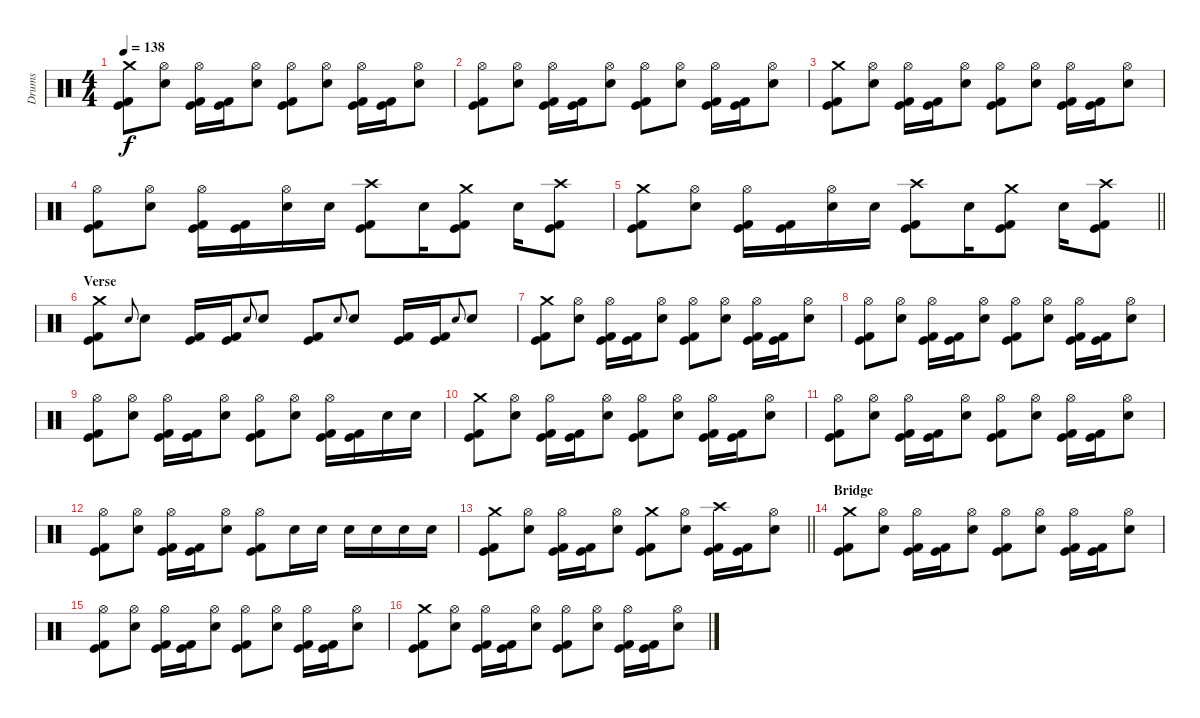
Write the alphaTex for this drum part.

\track ("Drums" "Drums") {instrument percussion}
\staff {score}
\articulation defaults
\ts (4 4)
\tempo 138
\clef neutral
\ks c
("Crash medium (hit)" "Kick (hit)" "Kick (hit) 2").8{dy f} ("Hi-Hat (open)" "Electric Snare (hit)").8 ("Hi-Hat (open)" "Kick (hit)" "Kick (hit) 2").16 ("Kick (hit)" "Kick (hit) 2").16 ("Hi-Hat (open)" "Electric Snare (hit)").8 ("Hi-Hat (open)" "Kick (hit)" "Kick (hit) 2").8 ("Hi-Hat (open)" "Electric Snare (hit)").8 ("Hi-Hat (open)" "Kick (hit)" "Kick (hit) 2").16 ("Kick (hit)" "Kick (hit) 2").16 ("Hi-Hat (open)" "Electric Snare (hit)").8 |
("Hi-Hat (open)" "Kick (hit)" "Kick (hit) 2").8 ("Hi-Hat (open)" "Electric Snare (hit)").8 ("Hi-Hat (open)" "Kick (hit)" "Kick (hit) 2").16 ("Kick (hit)" "Kick (hit) 2").16 ("Hi-Hat (open)" "Electric Snare (hit)").8 ("Hi-Hat (open)" "Kick (hit)" "Kick (hit) 2").8 ("Hi-Hat (open)" "Electric Snare (hit)").8 ("Hi-Hat (open)" "Kick (hit)" "Kick (hit) 2").16 ("Kick (hit)" "Kick (hit) 2").16 ("Hi-Hat (open)" "Electric Snare (hit)").8 |
("Crash medium (hit)" "Kick (hit)" "Kick (hit) 2").8 ("Hi-Hat (open)" "Electric Snare (hit)").8 ("Hi-Hat (open)" "Kick (hit)" "Kick (hit) 2").16 ("Kick (hit)" "Kick (hit) 2").16 ("Hi-Hat (open)" "Electric Snare (hit)").8 ("Hi-Hat (open)" "Kick (hit)" "Kick (hit) 2").8 ("Hi-Hat (open)" "Electric Snare (hit)").8 ("Hi-Hat (open)" "Kick (hit)" "Kick (hit) 2").16 ("Kick (hit)" "Kick (hit) 2").16 ("Hi-Hat (open)" "Electric Snare (hit)").8 |
("Hi-Hat (open)" "Kick (hit)" "Kick (hit) 2").8 ("Hi-Hat (open)" "Electric Snare (hit)").8 ("Hi-Hat (open)" "Kick (hit)" "Kick (hit) 2").16 ("Kick (hit)" "Kick (hit) 2").16 ("Hi-Hat (open)" "Electric Snare (hit)").16 "Electric Snare (hit)".16 ("Crash high (hit)" "Kick (hit)" "Kick (hit) 2").8 "Electric Snare (hit)".16 ("Crash medium (hit)" "Kick (hit)" "Kick (hit) 2").8 "Electric Snare (hit)".16 ("Crash high (hit)" "Kick (hit)" "Kick (hit) 2").8 |
\barLineRight lightlight
("Crash medium (hit)" "Kick (hit)" "Kick (hit) 2").8 ("Hi-Hat (open)" "Electric Snare (hit)").8 ("Hi-Hat (open)" "Kick (hit)" "Kick (hit) 2").16 ("Kick (hit)" "Kick (hit) 2").16 ("Hi-Hat (open)" "Electric Snare (hit)").16 "Electric Snare (hit)".16 ("Crash high (hit)" "Kick (hit)" "Kick (hit) 2").8 "Electric Snare (hit)".16 ("Crash medium (hit)" "Kick (hit)" "Kick (hit) 2").8 "Electric Snare (hit)".16 ("Crash high (hit)" "Kick (hit)" "Kick (hit) 2").8 |
\section ("" "Verse")
("Crash medium (hit)" "Kick (hit)" "Kick (hit) 2").8 "Electric Snare (hit)".8{gr onbeat} "Electric Snare (hit)".8 ("Kick (hit)" "Kick (hit) 2").16 ("Kick (hit)" "Kick (hit) 2").16 "Electric Snare (hit)".8{gr onbeat} "Electric Snare (hit)".8 ("Kick (hit)" "Kick (hit) 2").8 "Electric Snare (hit)".8{gr onbeat} "Electric Snare (hit)".8 ("Kick (hit)" "Kick (hit) 2").16 ("Kick (hit)" "Kick (hit) 2").16 "Electric Snare (hit)".8{gr onbeat} "Electric Snare (hit)".8 |
("Crash medium (hit)" "Kick (hit)" "Kick (hit) 2").8 ("Hi-Hat (open)" "Electric Snare (hit)").8 ("Hi-Hat (open)" "Kick (hit)" "Kick (hit) 2").16 ("Kick (hit)" "Kick (hit) 2").16 ("Hi-Hat (open)" "Electric Snare (hit)").8 ("Hi-Hat (open)" "Kick (hit)" "Kick (hit) 2").8 ("Hi-Hat (open)" "Electric Snare (hit)").8 ("Hi-Hat (open)" "Kick (hit)" "Kick (hit) 2").16 ("Kick (hit)" "Kick (hit) 2").16 ("Hi-Hat (open)" "Electric Snare (hit)").8 |
("Hi-Hat (open)" "Kick (hit)" "Kick (hit) 2").8 ("Hi-Hat (open)" "Electric Snare (hit)").8 ("Hi-Hat (open)" "Kick (hit)" "Kick (hit) 2").16 ("Kick (hit)" "Kick (hit) 2").16 ("Hi-Hat (open)" "Electric Snare (hit)").8 ("Hi-Hat (open)" "Kick (hit)" "Kick (hit) 2").8 ("Hi-Hat (open)" "Electric Snare (hit)").8 ("Hi-Hat (open)" "Kick (hit)" "Kick (hit) 2").16 ("Kick (hit)" "Kick (hit) 2").16 ("Hi-Hat (open)" "Electric Snare (hit)").8 |
("Hi-Hat (open)" "Kick (hit)" "Kick (hit) 2").8 ("Hi-Hat (open)" "Electric Snare (hit)").8 ("Hi-Hat (open)" "Kick (hit)" "Kick (hit) 2").16 ("Kick (hit)" "Kick (hit) 2").16 ("Hi-Hat (open)" "Electric Snare (hit)").8 ("Hi-Hat (open)" "Kick (hit)" "Kick (hit) 2").8 ("Hi-Hat (open)" "Electric Snare (hit)").8 ("Hi-Hat (open)" "Kick (hit)" "Kick (hit) 2").16 ("Kick (hit)" "Kick (hit) 2").16 "Electric Snare (hit)".16 "Electric Snare (hit)".16 |
("Crash medium (hit)" "Kick (hit)" "Kick (hit) 2").8 ("Hi-Hat (open)" "Electric Snare (hit)").8 ("Hi-Hat (open)" "Kick (hit)" "Kick (hit) 2").16 ("Kick (hit)" "Kick (hit) 2").16 ("Hi-Hat (open)" "Electric Snare (hit)").8 ("Hi-Hat (open)" "Kick (hit)" "Kick (hit) 2").8 ("Hi-Hat (open)" "Electric Snare (hit)").8 ("Hi-Hat (open)" "Kick (hit)" "Kick (hit) 2").16 ("Kick (hit)" "Kick (hit) 2").16 ("Hi-Hat (open)" "Electric Snare (hit)").8 |
("Hi-Hat (open)" "Kick (hit)" "Kick (hit) 2").8 ("Hi-Hat (open)" "Electric Snare (hit)").8 ("Hi-Hat (open)" "Kick (hit)" "Kick (hit) 2").16 ("Kick (hit)" "Kick (hit) 2").16 ("Hi-Hat (open)" "Electric Snare (hit)").8 ("Hi-Hat (open)" "Kick (hit)" "Kick (hit) 2").8 ("Hi-Hat (open)" "Electric Snare (hit)").8 ("Hi-Hat (open)" "Kick (hit)" "Kick (hit) 2").16 ("Kick (hit)" "Kick (hit) 2").16 ("Hi-Hat (open)" "Electric Snare (hit)").8 |
("Hi-Hat (open)" "Kick (hit)" "Kick (hit) 2").8 ("Hi-Hat (open)" "Electric Snare (hit)").8 ("Hi-Hat (open)" "Kick (hit)" "Kick (hit) 2").16 ("Kick (hit)" "Kick (hit) 2").16 ("Hi-Hat (open)" "Electric Snare (hit)").8 ("Hi-Hat (open)" "Kick (hit)" "Kick (hit) 2").8 "Electric Snare (hit)".16 "Electric Snare (hit)".16 "Electric Snare (hit)".16 "Electric Snare (hit)".16 "Electric Snare (hit)".16 "Electric Snare (hit)".16 |
\barLineRight lightlight
("Crash medium (hit)" "Kick (hit)" "Kick (hit) 2").8 ("Hi-Hat (open)" "Electric Snare (hit)").8 ("Hi-Hat (open)" "Kick (hit)" "Kick (hit) 2").16 ("Kick (hit)" "Kick (hit) 2").16 ("Hi-Hat (open)" "Electric Snare (hit)").8 ("Crash medium (hit)" "Kick (hit)" "Kick (hit) 2").8 ("Hi-Hat (open)" "Electric Snare (hit)").8 ("Crash high (hit)" "Kick (hit)" "Kick (hit) 2").16 ("Kick (hit)" "Kick (hit) 2").16 ("Hi-Hat (open)" "Electric Snare (hit)").8 |
\section ("" "Bridge")
("Crash medium (hit)" "Kick (hit)" "Kick (hit) 2").8 ("Hi-Hat (open)" "Electric Snare (hit)").8 ("Hi-Hat (open)" "Kick (hit)" "Kick (hit) 2").16 ("Kick (hit)" "Kick (hit) 2").16 ("Hi-Hat (open)" "Electric Snare (hit)").8 ("Hi-Hat (open)" "Kick (hit)" "Kick (hit) 2").8 ("Hi-Hat (open)" "Electric Snare (hit)").8 ("Hi-Hat (open)" "Kick (hit)" "Kick (hit) 2").16 ("Kick (hit)" "Kick (hit) 2").16 ("Hi-Hat (open)" "Electric Snare (hit)").8 |
("Hi-Hat (open)" "Kick (hit)" "Kick (hit) 2").8 ("Hi-Hat (open)" "Electric Snare (hit)").8 ("Hi-Hat (open)" "Kick (hit)" "Kick (hit) 2").16 ("Kick (hit)" "Kick (hit) 2").16 ("Hi-Hat (open)" "Electric Snare (hit)").8 ("Hi-Hat (open)" "Kick (hit)" "Kick (hit) 2").8 ("Hi-Hat (open)" "Electric Snare (hit)").8 ("Hi-Hat (open)" "Kick (hit)" "Kick (hit) 2").16 ("Kick (hit)" "Kick (hit) 2").16 ("Hi-Hat (open)" "Electric Snare (hit)").8 |
("Crash medium (hit)" "Kick (hit)" "Kick (hit) 2").8 ("Hi-Hat (open)" "Electric Snare (hit)").8 ("Hi-Hat (open)" "Kick (hit)" "Kick (hit) 2").16 ("Kick (hit)" "Kick (hit) 2").16 ("Hi-Hat (open)" "Electric Snare (hit)").8 ("Hi-Hat (open)" "Kick (hit)" "Kick (hit) 2").8 ("Hi-Hat (open)" "Electric Snare (hit)").8 ("Hi-Hat (open)" "Kick (hit)" "Kick (hit) 2").16 ("Kick (hit)" "Kick (hit) 2").16 ("Hi-Hat (open)" "Electric Snare (hit)").8
